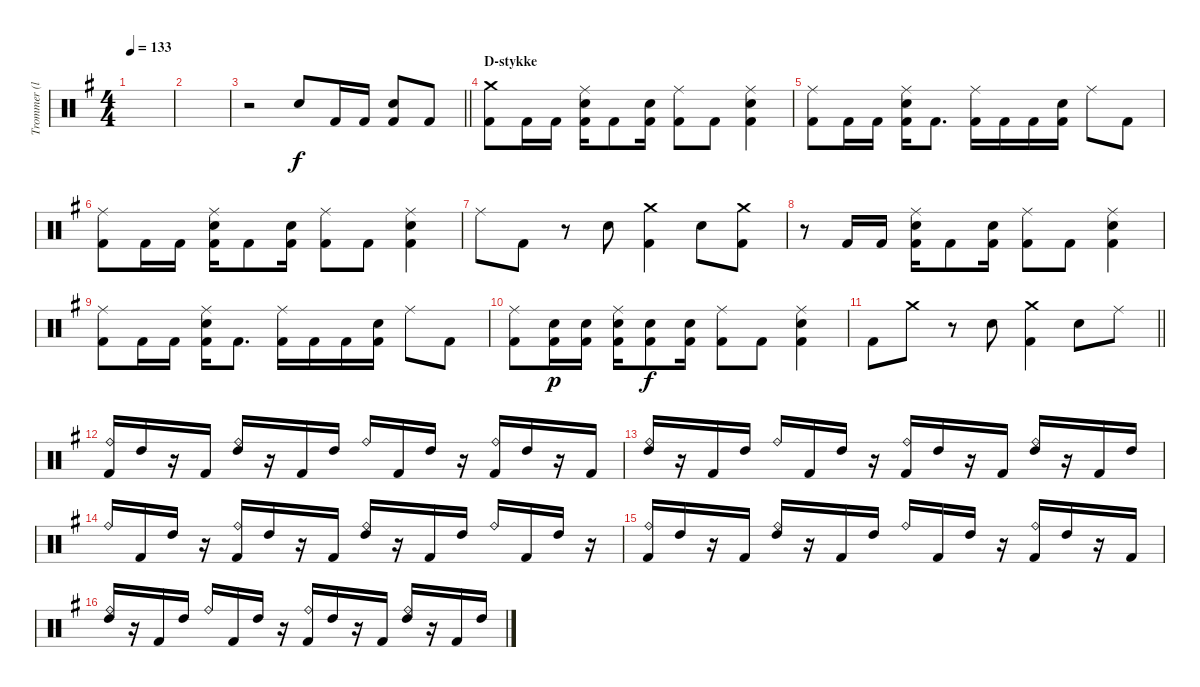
\track ("Trommer (lidt hjælp)" "Trommer (l") {instrument percussion}
\staff {score}
\articulation defaults
\ts (4 4)
\tempo 133
\clef neutral
\ks eminor
|
|
\barLineRight lightlight
r.2 "Electric Snare (hit)".8 "Kick (hit) 2".16 "Kick (hit) 2".16 ("Electric Snare (hit)" "Kick (hit) 2").8 "Kick (hit) 2".8 |
\section ("" "D-stykke")
("Crash medium (hit)" "Kick (hit) 2").8 "Kick (hit) 2".16 "Kick (hit) 2".16 ("Ride (middle)" "Electric Snare (hit)" "Kick (hit) 2").16 "Kick (hit) 2".8 ("Electric Snare (hit)" "Kick (hit) 2").16 ("Ride (middle)" "Kick (hit) 2").8 "Kick (hit) 2".8 ("Ride (middle)" "Electric Snare (hit)" "Kick (hit) 2").4 |
("Ride (middle)" "Kick (hit) 2").8 "Kick (hit) 2".16 "Kick (hit) 2".16 ("Ride (middle)" "Electric Snare (hit)" "Kick (hit) 2").16 "Kick (hit) 2".8{d} ("Ride (middle)" "Kick (hit) 2").16 "Kick (hit) 2".16 "Kick (hit) 2".16 ("Electric Snare (hit)" "Kick (hit) 2").16 "Ride (middle)".8 "Kick (hit) 2".8 |
("Ride (middle)" "Kick (hit) 2").8 "Kick (hit) 2".16 "Kick (hit) 2".16 ("Ride (middle)" "Electric Snare (hit)" "Kick (hit) 2").16 "Kick (hit) 2".8 ("Electric Snare (hit)" "Kick (hit) 2").16 ("Ride (middle)" "Kick (hit) 2").8 "Kick (hit) 2".8 ("Ride (middle)" "Electric Snare (hit)" "Kick (hit) 2").4 |
"Ride (middle)".8 "Kick (hit) 2".8 r.8 "Electric Snare (hit)".8 ("Crash medium (hit)" "Kick (hit) 2").4 "Electric Snare (hit)".8 ("Crash medium (hit)" "Kick (hit) 2").8 |
r.8 "Kick (hit) 2".16 "Kick (hit) 2".16 ("Ride (middle)" "Electric Snare (hit)" "Kick (hit) 2").16 "Kick (hit) 2".8 ("Electric Snare (hit)" "Kick (hit) 2").16 ("Ride (middle)" "Kick (hit) 2").8 "Kick (hit) 2".8 ("Ride (middle)" "Electric Snare (hit)" "Kick (hit) 2").4 |
("Ride (middle)" "Kick (hit) 2").8 "Kick (hit) 2".16 "Kick (hit) 2".16 ("Ride (middle)" "Electric Snare (hit)" "Kick (hit) 2").16 "Kick (hit) 2".8{d} ("Ride (middle)" "Kick (hit) 2").16 "Kick (hit) 2".16 "Kick (hit) 2".16 ("Electric Snare (hit)" "Kick (hit) 2").16 "Ride (middle)".8 "Kick (hit) 2".8 |
("Ride (middle)" "Kick (hit) 2").8 ("Electric Snare (hit)" "Kick (hit) 2").16{dy p} ("Electric Snare (hit)" "Kick (hit) 2").16 ("Ride (middle)" "Electric Snare (hit)" "Kick (hit) 2").16 ("Electric Snare (hit)" "Kick (hit) 2").8{dy f} ("Electric Snare (hit)" "Kick (hit) 2").16 ("Ride (middle)" "Kick (hit) 2").8 "Kick (hit) 2".8 ("Ride (middle)" "Electric Snare (hit)" "Kick (hit) 2").4 |
\barLineRight lightlight "Kick (hit) 2".8 "Crash medium (hit)".8
r.8 "Electric Snare (hit)".8 ("Crash medium (hit)" "Kick (hit) 2").4 "Electric Snare (hit)".8 "Ride (middle)".8 |
("Ride (bell)" "Kick (hit) 2").16{beam Up} "High Tom (hit)".16{beam Up} r.16 "Kick (hit) 2".16 ("Ride (bell)" "High Tom (hit)").16{beam Up} r.16 "Kick (hit) 2".16{beam Up} "High Tom (hit)".16{beam Up} "Ride (bell)".16{beam Up} "Kick (hit) 2".16{beam Up} "High Tom (hit)".16{beam Up} r.16 ("Ride (bell)" "Kick (hit) 2").16{beam Up} "High Tom (hit)".16{beam Up} r.16 "Kick (hit) 2".16 |
("Ride (bell)" "High Tom (hit)").16{beam Up} r.16 "Kick (hit) 2".16{beam Up} "High Tom (hit)".16{beam Up} "Ride (bell)".16{beam Up} "Kick (hit) 2".16{beam Up} "High Tom (hit)".16{beam Up} r.16 ("Ride (bell)" "Kick (hit) 2").16{beam Up} "High Tom (hit)".16{beam Up} r.16 "Kick (hit) 2".16 ("Ride (bell)" "High Tom (hit)").16{beam Up} r.16 "Kick (hit) 2".16{beam Up} "High Tom (hit)".16{beam Up} |
"Ride (bell)".16{beam Up} "Kick (hit) 2".16{beam Up} "High Tom (hit)".16{beam Up} r.16 ("Ride (bell)" "Kick (hit) 2").16{beam Up} "High Tom (hit)".16{beam Up} r.16 "Kick (hit) 2".16 ("Ride (bell)" "High Tom (hit)").16{beam Up} r.16 "Kick (hit) 2".16{beam Up} "High Tom (hit)".16{beam Up} "Ride (bell)".16{beam Up} "Kick (hit) 2".16{beam Up} "High Tom (hit)".16{beam Up} r.16 |
("Ride (bell)" "Kick (hit) 2").16{beam Up} "High Tom (hit)".16{beam Up} r.16 "Kick (hit) 2".16 ("Ride (bell)" "High Tom (hit)").16{beam Up} r.16 "Kick (hit) 2".16{beam Up} "High Tom (hit)".16{beam Up} "Ride (bell)".16{beam Up} "Kick (hit) 2".16{beam Up} "High Tom (hit)".16{beam Up} r.16 ("Ride (bell)" "Kick (hit) 2").16{beam Up} "High Tom (hit)".16{beam Up} r.16 "Kick (hit) 2".16 |
("Ride (bell)" "High Tom (hit)").16{beam Up} r.16 "Kick (hit) 2".16{beam Up} "High Tom (hit)".16{beam Up} "Ride (bell)".16{beam Up} "Kick (hit) 2".16{beam Up} "High Tom (hit)".16{beam Up} r.16 ("Ride (bell)" "Kick (hit) 2").16{beam Up} "High Tom (hit)".16{beam Up} r.16 "Kick (hit) 2".16 ("Ride (bell)" "High Tom (hit)").16{beam Up} r.16 "Kick (hit) 2".16{beam Up} "High Tom (hit)".16{beam Up}
